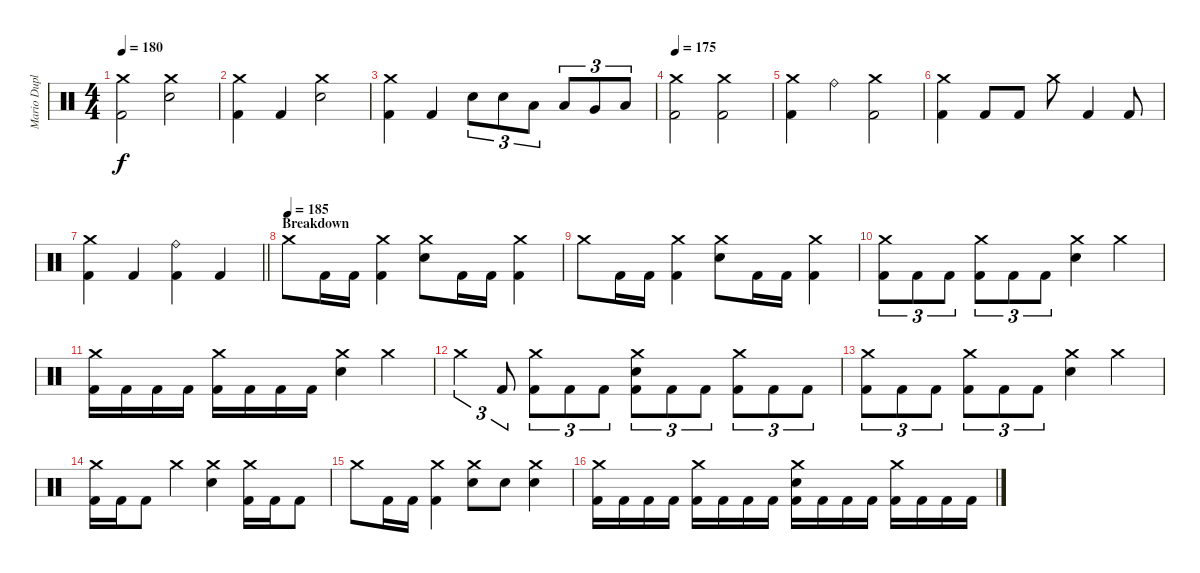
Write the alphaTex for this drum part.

\track ("Mario Duplantier" "Mario Dupl") {instrument percussion}
\staff {score}
\articulation defaults
\ts (4 4)
\tempo 180
\clef neutral
\ks c
("Crash medium (hit)" "Kick (hit) 2").2{dy f} ("Crash medium (hit)" "Electric Snare (hit)").2 |
("Crash medium (hit)" "Kick (hit) 2").4 "Kick (hit) 2".4 ("Crash medium (hit)" "Electric Snare (hit)").2 |
("Crash medium (hit)" "Kick (hit) 2").4 "Kick (hit) 2".4 "Electric Snare (hit)".8{tu (3 2)} "Electric Snare (hit)".8{tu (3 2)} "Low Tom (hit)".8{tu (3 2)} "Low Tom (hit)".8{tu (3 2)} "Very Low Tom (hit)".8{tu (3 2)} "Low Floor Tom (hit)".8{tu (3 2)} |
\tempo 175
("Crash medium (hit)" "Kick (hit) 2").2 ("Crash medium (hit)" "Kick (hit) 2").2 |
("Crash medium (hit)" "Kick (hit) 2").4 "Ride (bell)".4 ("Crash medium (hit)" "Kick (hit) 2").2 |
("Crash medium (hit)" "Kick (hit) 2").4 "Kick (hit) 2".8 "Kick (hit) 2".8 "Crash medium (hit)".8 "Kick (hit) 2".4 "Kick (hit) 2".8 |
\barLineRight lightlight
("Crash medium (hit)" "Kick (hit) 2").4 "Kick (hit) 2".4 ("Ride (bell)" "Kick (hit) 2").4 "Kick (hit) 2".4 |
\section ("" "Breakdown")
\tempo (185)
"Crash medium (hit)".8 "Kick (hit) 2".16 "Kick (hit) 2".16 ("Crash medium (hit)" "Kick (hit) 2").4 ("Crash medium (hit)" "Electric Snare (hit)").8 "Kick (hit) 2".16 "Kick (hit) 2".16 ("Crash medium (hit)" "Kick (hit) 2").4 |
"Crash medium (hit)".8 "Kick (hit) 2".16 "Kick (hit) 2".16 ("Crash medium (hit)" "Kick (hit) 2").4 ("Crash medium (hit)" "Electric Snare (hit)").8 "Kick (hit) 2".16 "Kick (hit) 2".16 ("Crash medium (hit)" "Kick (hit) 2").4 |
("Crash medium (hit)" "Kick (hit) 2").8{tu (3 2)} "Kick (hit) 2".8{tu (3 2)} "Kick (hit) 2".8{tu (3 2)} ("Crash medium (hit)" "Kick (hit) 2").8{tu (3 2)} "Kick (hit) 2".8{tu (3 2)} "Kick (hit) 2".8{tu (3 2)} ("Crash medium (hit)" "Electric Snare (hit)").4 "Crash medium (hit)".4 |
("Crash medium (hit)" "Kick (hit) 2").16 "Kick (hit) 2".16 "Kick (hit) 2".16 "Kick (hit) 2".16 ("Crash medium (hit)" "Kick (hit) 2").16 "Kick (hit) 2".16 "Kick (hit) 2".16 "Kick (hit) 2".16 ("Crash medium (hit)" "Electric Snare (hit)").4 "Crash medium (hit)".4 |
"Crash medium (hit)".4{tu (3 2)} "Kick (hit) 2".8{tu (3 2)} ("Crash medium (hit)" "Kick (hit) 2").8{tu (3 2)} "Kick (hit) 2".8{tu (3 2)} "Kick (hit) 2".8{tu (3 2)} ("Crash medium (hit)" "Electric Snare (hit)" "Kick (hit) 2").8{tu (3 2)} "Kick (hit) 2".8{tu (3 2)} "Kick (hit) 2".8{tu (3 2)} ("Crash medium (hit)" "Kick (hit) 2").8{tu (3 2)} "Kick (hit) 2".8{tu (3 2)} "Kick (hit) 2".8{tu (3 2)} |
("Crash medium (hit)" "Kick (hit) 2").8{tu (3 2)} "Kick (hit) 2".8{tu (3 2)} "Kick (hit) 2".8{tu (3 2)} ("Crash medium (hit)" "Kick (hit) 2").8{tu (3 2)} "Kick (hit) 2".8{tu (3 2)} "Kick (hit) 2".8{tu (3 2)} ("Crash medium (hit)" "Electric Snare (hit)").4 "Crash medium (hit)".4 |
("Crash medium (hit)" "Kick (hit) 2").16 "Kick (hit) 2".16 "Kick (hit) 2".8 "Crash medium (hit)".4 ("Crash medium (hit)" "Electric Snare (hit)").4 ("Crash medium (hit)" "Kick (hit) 2").16 "Kick (hit) 2".16 "Kick (hit) 2".8 |
"Crash medium (hit)".8 "Kick (hit) 2".16 "Kick (hit) 2".16 ("Crash medium (hit)" "Kick (hit) 2").4 ("Crash medium (hit)" "Electric Snare (hit)").8 "Electric Snare (hit)".8 ("Crash medium (hit)" "Electric Snare (hit)").4 |
("Crash medium (hit)" "Kick (hit) 2").16 "Kick (hit) 2".16 "Kick (hit) 2".16 "Kick (hit) 2".16 ("Crash medium (hit)" "Kick (hit) 2").16 "Kick (hit) 2".16 "Kick (hit) 2".16 "Kick (hit) 2".16 ("Crash medium (hit)" "Electric Snare (hit)" "Kick (hit) 2").16 "Kick (hit) 2".16 "Kick (hit) 2".16 "Kick (hit) 2".16 ("Crash medium (hit)" "Kick (hit) 2").16 "Kick (hit) 2".16 "Kick (hit) 2".16 "Kick (hit) 2".16
